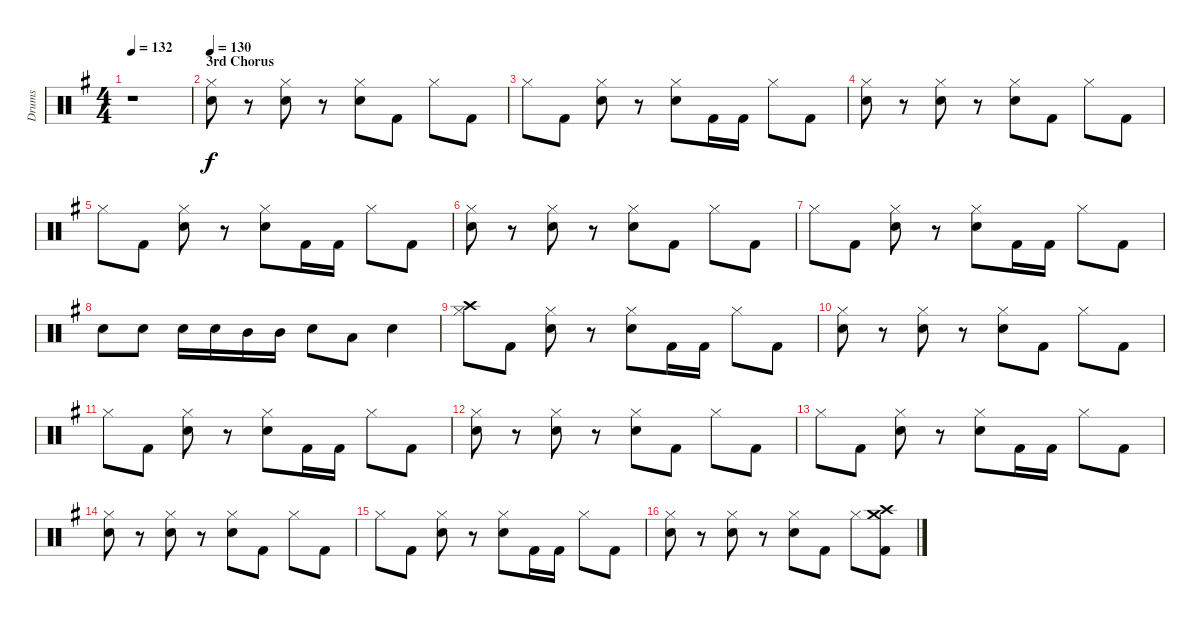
\track ("Drums" "Drums") {instrument percussion}
\staff {score}
\articulation defaults
\ts (4 4)
\tempo 132
\clef neutral
\ks g
r.1{dy f} |
\section ("" "3rd Chorus")
\tempo 130
("Hi-Hat (closed)" "Snare (hit) 2").8 r.8 ("Hi-Hat (closed)" "Snare (hit) 2").8 r.8 ("Hi-Hat (closed)" "Snare (hit) 2").8 "Kick (hit) 2".8 "Hi-Hat (closed)".8 "Kick (hit) 2".8 |
"Hi-Hat (closed)".8 "Kick (hit) 2".8 ("Hi-Hat (closed)" "Snare (hit) 2").8 r.8 ("Hi-Hat (closed)" "Snare (hit) 2").8 "Kick (hit) 2".16 "Kick (hit) 2".16 "Hi-Hat (closed)".8 "Kick (hit) 2".8 |
("Hi-Hat (closed)" "Snare (hit) 2").8 r.8 ("Hi-Hat (closed)" "Snare (hit) 2").8 r.8 ("Hi-Hat (closed)" "Snare (hit) 2").8 "Kick (hit) 2".8 "Hi-Hat (closed)".8 "Kick (hit) 2".8 |
"Hi-Hat (closed)".8 "Kick (hit) 2".8 ("Hi-Hat (closed)" "Snare (hit) 2").8 r.8 ("Hi-Hat (closed)" "Snare (hit) 2").8 "Kick (hit) 2".16 "Kick (hit) 2".16 "Hi-Hat (closed)".8 "Kick (hit) 2".8 |
("Hi-Hat (closed)" "Snare (hit) 2").8 r.8 ("Hi-Hat (closed)" "Snare (hit) 2").8 r.8 ("Hi-Hat (closed)" "Snare (hit) 2").8 "Kick (hit) 2".8 "Hi-Hat (closed)".8 "Kick (hit) 2".8 |
"Hi-Hat (closed)".8 "Kick (hit) 2".8 ("Hi-Hat (closed)" "Snare (hit) 2").8 r.8 ("Hi-Hat (closed)" "Snare (hit) 2").8 "Kick (hit) 2".16 "Kick (hit) 2".16 "Hi-Hat (closed)".8 "Kick (hit) 2".8 |
"Snare (hit) 2".8 "Snare (hit) 2".8 "Snare (hit) 2".16 "Snare (hit) 2".16 "Mid Tom (hit)".16 "Mid Tom (hit)".16 "Snare (hit) 2".8 "Low Tom (hit)".8 "Snare (hit) 2".4 |
("Hi-Hat (closed)" "Crash high (hit)").8 "Kick (hit) 2".8 ("Hi-Hat (closed)" "Snare (hit) 2").8 r.8 ("Hi-Hat (closed)" "Snare (hit) 2").8 "Kick (hit) 2".16 "Kick (hit) 2".16 "Hi-Hat (closed)".8 "Kick (hit) 2".8 |
("Hi-Hat (closed)" "Snare (hit) 2").8 r.8 ("Hi-Hat (closed)" "Snare (hit) 2").8 r.8 ("Hi-Hat (closed)" "Snare (hit) 2").8 "Kick (hit) 2".8 "Hi-Hat (closed)".8 "Kick (hit) 2".8 |
"Hi-Hat (closed)".8 "Kick (hit) 2".8 ("Hi-Hat (closed)" "Snare (hit) 2").8 r.8 ("Hi-Hat (closed)" "Snare (hit) 2").8 "Kick (hit) 2".16 "Kick (hit) 2".16 "Hi-Hat (closed)".8 "Kick (hit) 2".8 |
("Hi-Hat (closed)" "Snare (hit) 2").8 r.8 ("Hi-Hat (closed)" "Snare (hit) 2").8 r.8 ("Hi-Hat (closed)" "Snare (hit) 2").8 "Kick (hit) 2".8 "Hi-Hat (closed)".8 "Kick (hit) 2".8 |
"Hi-Hat (closed)".8 "Kick (hit) 2".8 ("Hi-Hat (closed)" "Snare (hit) 2").8 r.8 ("Hi-Hat (closed)" "Snare (hit) 2").8 "Kick (hit) 2".16 "Kick (hit) 2".16 "Hi-Hat (closed)".8 "Kick (hit) 2".8 |
("Hi-Hat (closed)" "Snare (hit) 2").8 r.8 ("Hi-Hat (closed)" "Snare (hit) 2").8 r.8 ("Hi-Hat (closed)" "Snare (hit) 2").8 "Kick (hit) 2".8 "Hi-Hat (closed)".8 "Kick (hit) 2".8 |
"Hi-Hat (closed)".8 "Kick (hit) 2".8 ("Hi-Hat (closed)" "Snare (hit) 2").8 r.8 ("Hi-Hat (closed)" "Snare (hit) 2").8 "Kick (hit) 2".16 "Kick (hit) 2".16 "Hi-Hat (closed)".8 "Kick (hit) 2".8 |
("Hi-Hat (closed)" "Snare (hit) 2").8 r.8 ("Hi-Hat (closed)" "Snare (hit) 2").8 r.8 ("Hi-Hat (closed)" "Snare (hit) 2").8 "Kick (hit) 2".8 "Hi-Hat (closed)".8 ("Kick (hit) 2" "Crash medium (hit)" "Crash high (hit)").8
